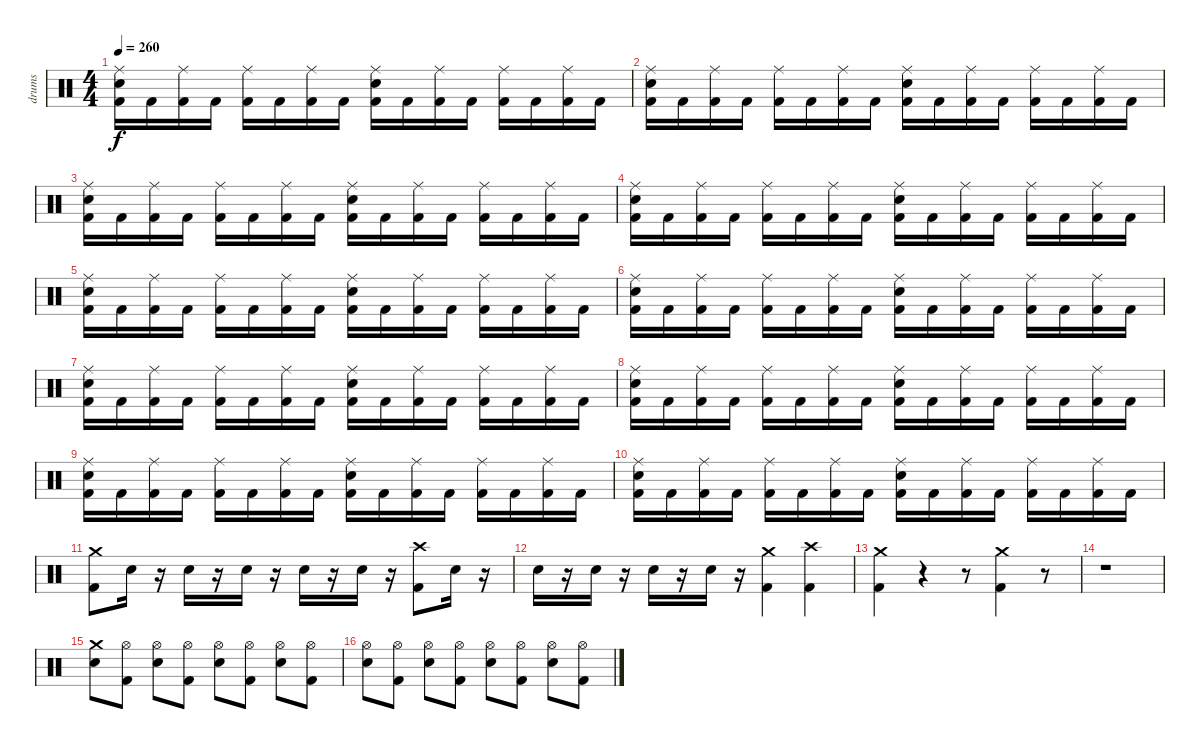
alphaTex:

\track ("drums" "drums") {instrument percussion}
\staff {score}
\articulation defaults
\ts (4 4)
\tempo 260
\clef neutral
\ks c
("Ride (middle)" "Electric Snare (hit)" "Kick (hit) 2").16{dy f} "Kick (hit) 2".16 ("Ride (middle)" "Kick (hit) 2").16 "Kick (hit) 2".16 ("Ride (middle)" "Kick (hit) 2").16 "Kick (hit) 2".16 ("Ride (middle)" "Kick (hit) 2").16 "Kick (hit) 2".16 ("Ride (middle)" "Electric Snare (hit)" "Kick (hit) 2").16 "Kick (hit) 2".16 ("Ride (middle)" "Kick (hit) 2").16 "Kick (hit) 2".16 ("Ride (middle)" "Kick (hit) 2").16 "Kick (hit) 2".16 ("Ride (middle)" "Kick (hit) 2").16 "Kick (hit) 2".16 |
("Ride (middle)" "Electric Snare (hit)" "Kick (hit) 2").16 "Kick (hit) 2".16 ("Ride (middle)" "Kick (hit) 2").16 "Kick (hit) 2".16 ("Ride (middle)" "Kick (hit) 2").16 "Kick (hit) 2".16 ("Ride (middle)" "Kick (hit) 2").16 "Kick (hit) 2".16 ("Ride (middle)" "Electric Snare (hit)" "Kick (hit) 2").16 "Kick (hit) 2".16 ("Ride (middle)" "Kick (hit) 2").16 "Kick (hit) 2".16 ("Ride (middle)" "Kick (hit) 2").16 "Kick (hit) 2".16 ("Ride (middle)" "Kick (hit) 2").16 "Kick (hit) 2".16 |
("Ride (middle)" "Electric Snare (hit)" "Kick (hit) 2").16 "Kick (hit) 2".16 ("Ride (middle)" "Kick (hit) 2").16 "Kick (hit) 2".16 ("Ride (middle)" "Kick (hit) 2").16 "Kick (hit) 2".16 ("Ride (middle)" "Kick (hit) 2").16 "Kick (hit) 2".16 ("Ride (middle)" "Electric Snare (hit)" "Kick (hit) 2").16 "Kick (hit) 2".16 ("Ride (middle)" "Kick (hit) 2").16 "Kick (hit) 2".16 ("Ride (middle)" "Kick (hit) 2").16 "Kick (hit) 2".16 ("Ride (middle)" "Kick (hit) 2").16 "Kick (hit) 2".16 |
("Ride (middle)" "Electric Snare (hit)" "Kick (hit) 2").16 "Kick (hit) 2".16 ("Ride (middle)" "Kick (hit) 2").16 "Kick (hit) 2".16 ("Ride (middle)" "Kick (hit) 2").16 "Kick (hit) 2".16 ("Ride (middle)" "Kick (hit) 2").16 "Kick (hit) 2".16 ("Ride (middle)" "Electric Snare (hit)" "Kick (hit) 2").16 "Kick (hit) 2".16 ("Ride (middle)" "Kick (hit) 2").16 "Kick (hit) 2".16 ("Ride (middle)" "Kick (hit) 2").16 "Kick (hit) 2".16 ("Ride (middle)" "Kick (hit) 2").16 "Kick (hit) 2".16 |
("Ride (middle)" "Electric Snare (hit)" "Kick (hit) 2").16 "Kick (hit) 2".16 ("Ride (middle)" "Kick (hit) 2").16 "Kick (hit) 2".16 ("Ride (middle)" "Kick (hit) 2").16 "Kick (hit) 2".16 ("Ride (middle)" "Kick (hit) 2").16 "Kick (hit) 2".16 ("Ride (middle)" "Electric Snare (hit)" "Kick (hit) 2").16 "Kick (hit) 2".16 ("Ride (middle)" "Kick (hit) 2").16 "Kick (hit) 2".16 ("Ride (middle)" "Kick (hit) 2").16 "Kick (hit) 2".16 ("Ride (middle)" "Kick (hit) 2").16 "Kick (hit) 2".16 |
("Ride (middle)" "Electric Snare (hit)" "Kick (hit) 2").16 "Kick (hit) 2".16 ("Ride (middle)" "Kick (hit) 2").16 "Kick (hit) 2".16 ("Ride (middle)" "Kick (hit) 2").16 "Kick (hit) 2".16 ("Ride (middle)" "Kick (hit) 2").16 "Kick (hit) 2".16 ("Ride (middle)" "Electric Snare (hit)" "Kick (hit) 2").16 "Kick (hit) 2".16 ("Ride (middle)" "Kick (hit) 2").16 "Kick (hit) 2".16 ("Ride (middle)" "Kick (hit) 2").16 "Kick (hit) 2".16 ("Ride (middle)" "Kick (hit) 2").16 "Kick (hit) 2".16 |
("Ride (middle)" "Electric Snare (hit)" "Kick (hit) 2").16 "Kick (hit) 2".16 ("Ride (middle)" "Kick (hit) 2").16 "Kick (hit) 2".16 ("Ride (middle)" "Kick (hit) 2").16 "Kick (hit) 2".16 ("Ride (middle)" "Kick (hit) 2").16 "Kick (hit) 2".16 ("Ride (middle)" "Electric Snare (hit)" "Kick (hit) 2").16 "Kick (hit) 2".16 ("Ride (middle)" "Kick (hit) 2").16 "Kick (hit) 2".16 ("Ride (middle)" "Kick (hit) 2").16 "Kick (hit) 2".16 ("Ride (middle)" "Kick (hit) 2").16 "Kick (hit) 2".16 |
("Ride (middle)" "Electric Snare (hit)" "Kick (hit) 2").16 "Kick (hit) 2".16 ("Ride (middle)" "Kick (hit) 2").16 "Kick (hit) 2".16 ("Ride (middle)" "Kick (hit) 2").16 "Kick (hit) 2".16 ("Ride (middle)" "Kick (hit) 2").16 "Kick (hit) 2".16 ("Ride (middle)" "Electric Snare (hit)" "Kick (hit) 2").16 "Kick (hit) 2".16 ("Ride (middle)" "Kick (hit) 2").16 "Kick (hit) 2".16 ("Ride (middle)" "Kick (hit) 2").16 "Kick (hit) 2".16 ("Ride (middle)" "Kick (hit) 2").16 "Kick (hit) 2".16 |
("Ride (middle)" "Electric Snare (hit)" "Kick (hit) 2").16 "Kick (hit) 2".16 ("Ride (middle)" "Kick (hit) 2").16 "Kick (hit) 2".16 ("Ride (middle)" "Kick (hit) 2").16 "Kick (hit) 2".16 ("Ride (middle)" "Kick (hit) 2").16 "Kick (hit) 2".16 ("Ride (middle)" "Electric Snare (hit)" "Kick (hit) 2").16 "Kick (hit) 2".16 ("Ride (middle)" "Kick (hit) 2").16 "Kick (hit) 2".16 ("Ride (middle)" "Kick (hit) 2").16 "Kick (hit) 2".16 ("Ride (middle)" "Kick (hit) 2").16 "Kick (hit) 2".16 |
("Ride (middle)" "Electric Snare (hit)" "Kick (hit) 2").16 "Kick (hit) 2".16 ("Ride (middle)" "Kick (hit) 2").16 "Kick (hit) 2".16 ("Ride (middle)" "Kick (hit) 2").16 "Kick (hit) 2".16 ("Ride (middle)" "Kick (hit) 2").16 "Kick (hit) 2".16 ("Ride (middle)" "Electric Snare (hit)" "Kick (hit) 2").16 "Kick (hit) 2".16 ("Ride (middle)" "Kick (hit) 2").16 "Kick (hit) 2".16 ("Ride (middle)" "Kick (hit) 2").16 "Kick (hit) 2".16 ("Ride (middle)" "Kick (hit) 2").16 "Kick (hit) 2".16 |
("Crash medium (hit)" "Kick (hit) 2").8 "Electric Snare (hit)".16 r.16 "Electric Snare (hit)".16 r.16 "Electric Snare (hit)".16 r.16 "Electric Snare (hit)".16 r.16 "Electric Snare (hit)".16 r.16 ("Crash high (hit)" "Kick (hit) 2").8 "Electric Snare (hit)".16 r.16 |
"Electric Snare (hit)".16 r.16 "Electric Snare (hit)".16 r.16 "Electric Snare (hit)".16 r.16 "Electric Snare (hit)".16 r.16 ("Crash medium (hit)" "Kick (hit) 2").4 ("Crash high (hit)" "Kick (hit) 2").4 |
("Crash medium (hit)" "Kick (hit) 2").4 r.4 r.8 ("Crash medium (hit)" "Kick (hit) 2").4 r.8 |
r.1 |
("Crash medium (hit)" "Electric Snare (hit)").8 ("Hi-Hat (open)" "Kick (hit) 2").8 ("Hi-Hat (open)" "Electric Snare (hit)").8 ("Hi-Hat (open)" "Kick (hit) 2").8 ("Hi-Hat (open)" "Electric Snare (hit)").8 ("Hi-Hat (open)" "Kick (hit) 2").8 ("Hi-Hat (open)" "Electric Snare (hit)").8 ("Hi-Hat (open)" "Kick (hit) 2").8 |
("Hi-Hat (open)" "Electric Snare (hit)").8 ("Hi-Hat (open)" "Kick (hit) 2").8 ("Hi-Hat (open)" "Electric Snare (hit)").8 ("Hi-Hat (open)" "Kick (hit) 2").8 ("Hi-Hat (open)" "Electric Snare (hit)").8 ("Hi-Hat (open)" "Kick (hit) 2").8 ("Hi-Hat (open)" "Electric Snare (hit)").8 ("Hi-Hat (open)" "Kick (hit) 2").8
